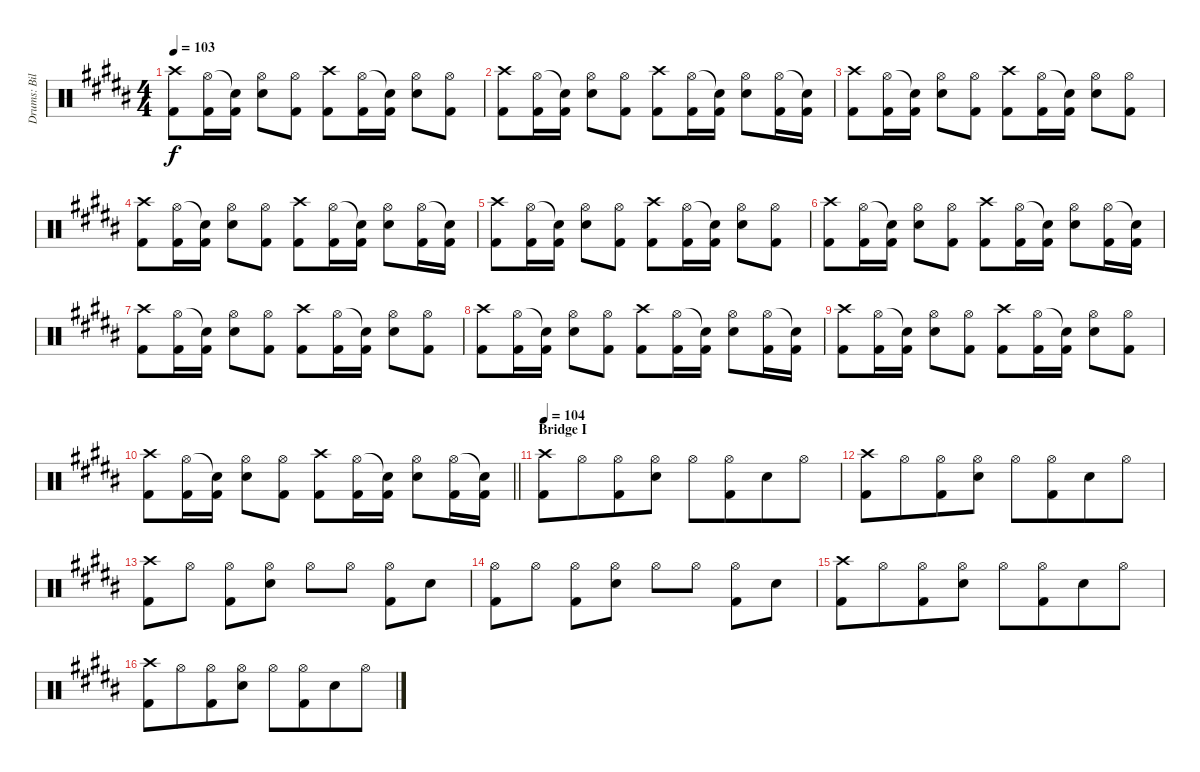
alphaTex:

\track ("Drums: Bill" "Drums: Bil") {instrument percussion}
\staff {score}
\articulation defaults
\ts (4 4)
\tempo 103
\clef neutral
\ks b
("Crash high (hit)" "Kick (hit) 2").8{dy f} ("Hi-Hat (open)" "Kick (hit) 2").16 ("Snare (hit)"{t} "Kick (hit) 2").16 ("Hi-Hat (open)" "Electric Snare (hit)").8 ("Hi-Hat (open)" "Kick (hit) 2").8 ("Crash high (hit)" "Kick (hit) 2").8 ("Hi-Hat (open)" "Kick (hit) 2").16 ("Snare (hit)"{t} "Kick (hit) 2").16 ("Hi-Hat (open)" "Electric Snare (hit)").8 ("Hi-Hat (open)" "Kick (hit) 2").8 |
("Crash high (hit)" "Kick (hit) 2").8 ("Hi-Hat (open)" "Kick (hit) 2").16 ("Snare (hit)"{t} "Kick (hit) 2").16 ("Hi-Hat (open)" "Electric Snare (hit)").8 ("Hi-Hat (open)" "Kick (hit) 2").8 ("Crash high (hit)" "Kick (hit) 2").8 ("Hi-Hat (open)" "Kick (hit) 2").16 ("Snare (hit)"{t} "Kick (hit) 2").16 ("Hi-Hat (open)" "Electric Snare (hit)").8 ("Hi-Hat (open)" "Kick (hit) 2").16 ("Snare (hit)"{t} "Kick (hit) 2").16 |
("Crash high (hit)" "Kick (hit) 2").8 ("Hi-Hat (open)" "Kick (hit) 2").16 ("Snare (hit)"{t} "Kick (hit) 2").16 ("Hi-Hat (open)" "Electric Snare (hit)").8 ("Hi-Hat (open)" "Kick (hit) 2").8 ("Crash high (hit)" "Kick (hit) 2").8 ("Hi-Hat (open)" "Kick (hit) 2").16 ("Snare (hit)"{t} "Kick (hit) 2").16 ("Hi-Hat (open)" "Electric Snare (hit)").8 ("Hi-Hat (open)" "Kick (hit) 2").8 |
("Crash high (hit)" "Kick (hit) 2").8 ("Hi-Hat (open)" "Kick (hit) 2").16 ("Snare (hit)"{t} "Kick (hit) 2").16 ("Hi-Hat (open)" "Electric Snare (hit)").8 ("Hi-Hat (open)" "Kick (hit) 2").8 ("Crash high (hit)" "Kick (hit) 2").8 ("Hi-Hat (open)" "Kick (hit) 2").16 ("Snare (hit)"{t} "Kick (hit) 2").16 ("Hi-Hat (open)" "Electric Snare (hit)").8 ("Hi-Hat (open)" "Kick (hit) 2").16 ("Snare (hit)"{t} "Kick (hit) 2").16 |
("Crash high (hit)" "Kick (hit) 2").8 ("Hi-Hat (open)" "Kick (hit) 2").16 ("Snare (hit)"{t} "Kick (hit) 2").16 ("Hi-Hat (open)" "Electric Snare (hit)").8 ("Hi-Hat (open)" "Kick (hit) 2").8 ("Crash high (hit)" "Kick (hit) 2").8 ("Hi-Hat (open)" "Kick (hit) 2").16 ("Snare (hit)"{t} "Kick (hit) 2").16 ("Hi-Hat (open)" "Electric Snare (hit)").8 ("Hi-Hat (open)" "Kick (hit) 2").8 |
("Crash high (hit)" "Kick (hit) 2").8 ("Hi-Hat (open)" "Kick (hit) 2").16 ("Snare (hit)"{t} "Kick (hit) 2").16 ("Hi-Hat (open)" "Electric Snare (hit)").8 ("Hi-Hat (open)" "Kick (hit) 2").8 ("Crash high (hit)" "Kick (hit) 2").8 ("Hi-Hat (open)" "Kick (hit) 2").16 ("Snare (hit)"{t} "Kick (hit) 2").16 ("Hi-Hat (open)" "Electric Snare (hit)").8 ("Hi-Hat (open)" "Kick (hit) 2").16 ("Snare (hit)"{t} "Kick (hit) 2").16 |
("Crash high (hit)" "Kick (hit) 2").8 ("Hi-Hat (open)" "Kick (hit) 2").16 ("Snare (hit)"{t} "Kick (hit) 2").16 ("Hi-Hat (open)" "Electric Snare (hit)").8 ("Hi-Hat (open)" "Kick (hit) 2").8 ("Crash high (hit)" "Kick (hit) 2").8 ("Hi-Hat (open)" "Kick (hit) 2").16 ("Snare (hit)"{t} "Kick (hit) 2").16 ("Hi-Hat (open)" "Electric Snare (hit)").8 ("Hi-Hat (open)" "Kick (hit) 2").8 |
("Crash high (hit)" "Kick (hit) 2").8 ("Hi-Hat (open)" "Kick (hit) 2").16 ("Snare (hit)"{t} "Kick (hit) 2").16 ("Hi-Hat (open)" "Electric Snare (hit)").8 ("Hi-Hat (open)" "Kick (hit) 2").8 ("Crash high (hit)" "Kick (hit) 2").8 ("Hi-Hat (open)" "Kick (hit) 2").16 ("Snare (hit)"{t} "Kick (hit) 2").16 ("Hi-Hat (open)" "Electric Snare (hit)").8 ("Hi-Hat (open)" "Kick (hit) 2").16 ("Snare (hit)"{t} "Kick (hit) 2").16 |
("Crash high (hit)" "Kick (hit) 2").8 ("Hi-Hat (open)" "Kick (hit) 2").16 ("Snare (hit)"{t} "Kick (hit) 2").16 ("Hi-Hat (open)" "Electric Snare (hit)").8 ("Hi-Hat (open)" "Kick (hit) 2").8 ("Crash high (hit)" "Kick (hit) 2").8 ("Hi-Hat (open)" "Kick (hit) 2").16 ("Snare (hit)"{t} "Kick (hit) 2").16 ("Hi-Hat (open)" "Electric Snare (hit)").8 ("Hi-Hat (open)" "Kick (hit) 2").8 |
\barLineRight lightlight
("Crash high (hit)" "Kick (hit) 2").8 ("Hi-Hat (open)" "Kick (hit) 2").16 ("Snare (hit)"{t} "Kick (hit) 2").16 ("Hi-Hat (open)" "Electric Snare (hit)").8 ("Hi-Hat (open)" "Kick (hit) 2").8 ("Crash high (hit)" "Kick (hit) 2").8 ("Hi-Hat (open)" "Kick (hit) 2").16 ("Snare (hit)"{t} "Kick (hit) 2").16 ("Hi-Hat (open)" "Electric Snare (hit)").8 ("Hi-Hat (open)" "Kick (hit) 2").16 ("Snare (hit)"{t} "Kick (hit) 2").16 |
\section ("" "Bridge I")
\tempo 104
("Crash high (hit)" "Kick (hit) 2").8 "Hi-Hat (open)".8{beam merge} ("Hi-Hat (open)" "Kick (hit) 2").8 ("Hi-Hat (open)" "Electric Snare (hit)").8 "Hi-Hat (open)".8 ("Hi-Hat (open)" "Kick (hit) 2").8{beam merge} "Electric Snare (hit)".8 "Hi-Hat (open)".8 |
("Crash high (hit)" "Kick (hit) 2").8 "Hi-Hat (open)".8{beam merge} ("Hi-Hat (open)" "Kick (hit) 2").8 ("Hi-Hat (open)" "Electric Snare (hit)").8 "Hi-Hat (open)".8 ("Hi-Hat (open)" "Kick (hit) 2").8{beam merge} "Electric Snare (hit)".8 "Hi-Hat (open)".8 |
("Crash high (hit)" "Kick (hit) 2").8 "Hi-Hat (open)".8 ("Hi-Hat (open)" "Kick (hit) 2").8 ("Hi-Hat (open)" "Electric Snare (hit)").8 "Hi-Hat (open)".8 "Hi-Hat (open)".8 ("Hi-Hat (open)" "Kick (hit) 2").8 "Electric Snare (hit)".8 |
("Hi-Hat (open)" "Kick (hit) 2").8 "Hi-Hat (open)".8 ("Hi-Hat (open)" "Kick (hit) 2").8 ("Hi-Hat (open)" "Electric Snare (hit)").8 "Hi-Hat (open)".8 "Hi-Hat (open)".8 ("Hi-Hat (open)" "Kick (hit) 2").8 "Electric Snare (hit)".8 |
("Crash high (hit)" "Kick (hit) 2").8 "Hi-Hat (open)".8{beam merge} ("Hi-Hat (open)" "Kick (hit) 2").8 ("Hi-Hat (open)" "Electric Snare (hit)").8 "Hi-Hat (open)".8 ("Hi-Hat (open)" "Kick (hit) 2").8{beam merge} "Electric Snare (hit)".8 "Hi-Hat (open)".8 |
("Crash high (hit)" "Kick (hit) 2").8 "Hi-Hat (open)".8{beam merge} ("Hi-Hat (open)" "Kick (hit) 2").8 ("Hi-Hat (open)" "Electric Snare (hit)").8 "Hi-Hat (open)".8 ("Hi-Hat (open)" "Kick (hit) 2").8{beam merge} "Electric Snare (hit)".8 "Hi-Hat (open)".8
